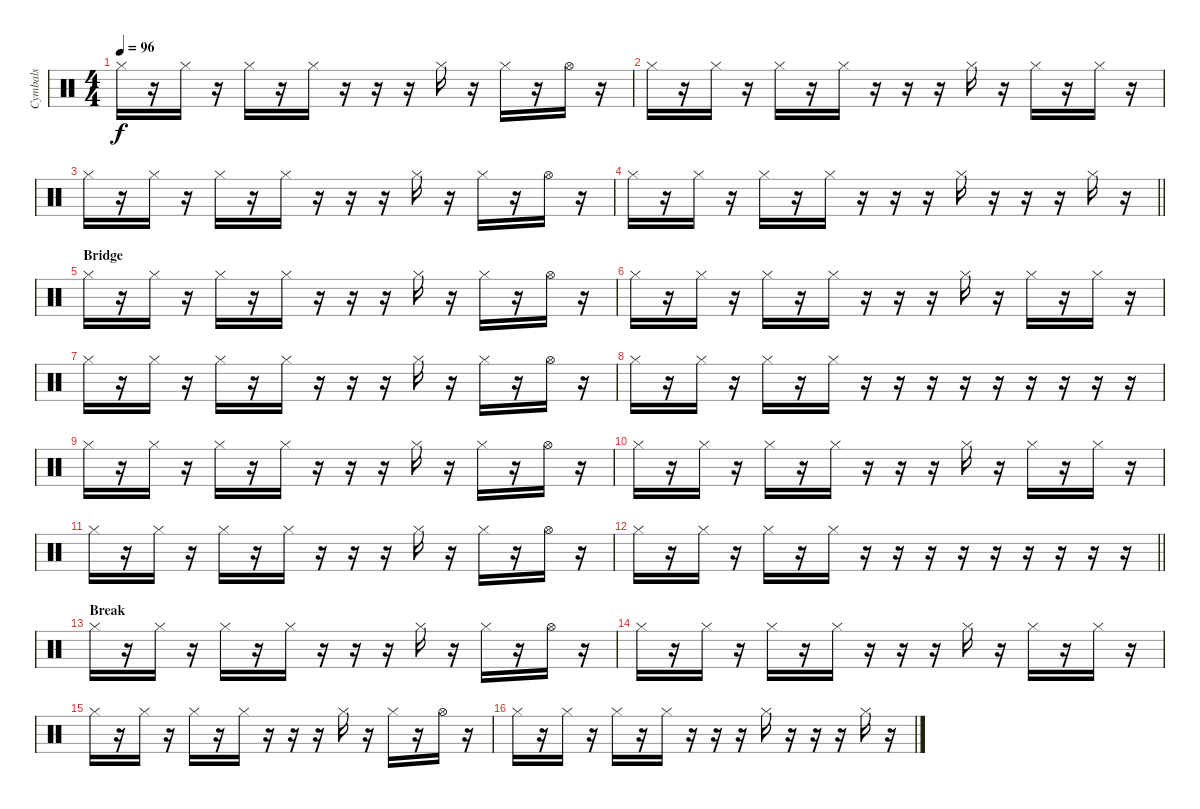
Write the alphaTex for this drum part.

\track ("Cymbals" "Cymbals") {instrument percussion}
\staff {score}
\articulation defaults
\ts (4 4)
\tempo 96
\clef neutral
\ks c "Hi-Hat (closed)".16{dy f}
r.16 "Hi-Hat (closed)".16 r.16 "Hi-Hat (closed)".16 r.16 "Hi-Hat (closed)".16 r.16 r.16 r.16 "Hi-Hat (closed)".16 r.16 "Hi-Hat (closed)".16 r.16 "Hi-Hat (open)".16 r.16 |
"Hi-Hat (closed)".16 r.16 "Hi-Hat (closed)".16 r.16 "Hi-Hat (closed)".16 r.16 "Hi-Hat (closed)".16 r.16 r.16 r.16 "Hi-Hat (closed)".16 r.16 "Hi-Hat (closed)".16 r.16 "Hi-Hat (closed)".16 r.16 |
"Hi-Hat (closed)".16 r.16 "Hi-Hat (closed)".16 r.16 "Hi-Hat (closed)".16 r.16 "Hi-Hat (closed)".16 r.16 r.16 r.16 "Hi-Hat (closed)".16 r.16 "Hi-Hat (closed)".16 r.16 "Hi-Hat (open)".16 r.16 |
\barLineRight lightlight "Hi-Hat (closed)".16
r.16 "Hi-Hat (closed)".16 r.16 "Hi-Hat (closed)".16 r.16 "Hi-Hat (closed)".16 r.16 r.16 r.16 "Hi-Hat (closed)".16 r.16 r.16 r.16 "Hi-Hat (closed)".16 r.16 |
\section ("" "Bridge")
"Hi-Hat (closed)".16 r.16 "Hi-Hat (closed)".16 r.16 "Hi-Hat (closed)".16 r.16 "Hi-Hat (closed)".16 r.16 r.16 r.16 "Hi-Hat (closed)".16 r.16 "Hi-Hat (closed)".16 r.16 "Hi-Hat (open)".16 r.16 |
"Hi-Hat (closed)".16 r.16 "Hi-Hat (closed)".16 r.16 "Hi-Hat (closed)".16 r.16 "Hi-Hat (closed)".16 r.16 r.16 r.16 "Hi-Hat (closed)".16 r.16 "Hi-Hat (closed)".16 r.16 "Hi-Hat (closed)".16 r.16 |
"Hi-Hat (closed)".16 r.16 "Hi-Hat (closed)".16 r.16 "Hi-Hat (closed)".16 r.16 "Hi-Hat (closed)".16 r.16 r.16 r.16 "Hi-Hat (closed)".16 r.16 "Hi-Hat (closed)".16 r.16 "Hi-Hat (open)".16 r.16 |
"Hi-Hat (closed)".16 r.16 "Hi-Hat (closed)".16 r.16 "Hi-Hat (closed)".16 r.16 "Hi-Hat (closed)".16 r.16 r.16 r.16 r.16 r.16 r.16 r.16 r.16 r.16 |
"Hi-Hat (closed)".16 r.16 "Hi-Hat (closed)".16 r.16 "Hi-Hat (closed)".16 r.16 "Hi-Hat (closed)".16 r.16 r.16 r.16 "Hi-Hat (closed)".16 r.16 "Hi-Hat (closed)".16 r.16 "Hi-Hat (open)".16 r.16 |
"Hi-Hat (closed)".16 r.16 "Hi-Hat (closed)".16 r.16 "Hi-Hat (closed)".16 r.16 "Hi-Hat (closed)".16 r.16 r.16 r.16 "Hi-Hat (closed)".16 r.16 "Hi-Hat (closed)".16 r.16 "Hi-Hat (closed)".16 r.16 |
"Hi-Hat (closed)".16 r.16 "Hi-Hat (closed)".16 r.16 "Hi-Hat (closed)".16 r.16 "Hi-Hat (closed)".16 r.16 r.16 r.16 "Hi-Hat (closed)".16 r.16 "Hi-Hat (closed)".16 r.16 "Hi-Hat (open)".16 r.16 |
\barLineRight lightlight "Hi-Hat (closed)".16
r.16 "Hi-Hat (closed)".16 r.16 "Hi-Hat (closed)".16 r.16 "Hi-Hat (closed)".16 r.16 r.16 r.16 r.16 r.16 r.16 r.16 r.16 r.16 |
\section ("" "Break")
"Hi-Hat (closed)".16 r.16 "Hi-Hat (closed)".16 r.16 "Hi-Hat (closed)".16 r.16 "Hi-Hat (closed)".16 r.16 r.16 r.16 "Hi-Hat (closed)".16 r.16 "Hi-Hat (closed)".16 r.16 "Hi-Hat (open)".16 r.16 |
"Hi-Hat (closed)".16 r.16 "Hi-Hat (closed)".16 r.16 "Hi-Hat (closed)".16 r.16 "Hi-Hat (closed)".16 r.16 r.16 r.16 "Hi-Hat (closed)".16 r.16 "Hi-Hat (closed)".16 r.16 "Hi-Hat (closed)".16 r.16 |
"Hi-Hat (closed)".16 r.16 "Hi-Hat (closed)".16 r.16 "Hi-Hat (closed)".16 r.16 "Hi-Hat (closed)".16 r.16 r.16 r.16 "Hi-Hat (closed)".16 r.16 "Hi-Hat (closed)".16 r.16 "Hi-Hat (open)".16 r.16 |
"Hi-Hat (closed)".16 r.16 "Hi-Hat (closed)".16 r.16 "Hi-Hat (closed)".16 r.16 "Hi-Hat (closed)".16 r.16 r.16 r.16 "Hi-Hat (closed)".16 r.16 r.16 r.16 "Hi-Hat (closed)".16 r.16
